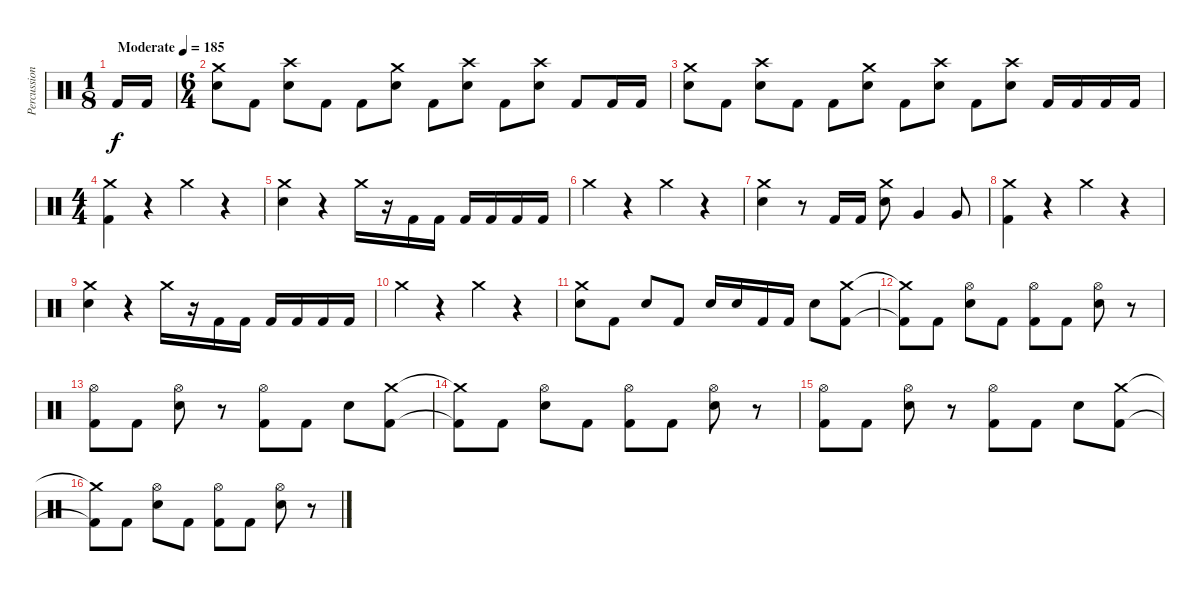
\track ("Percussion" "Percussion") {instrument percussion}
\staff {score}
\articulation defaults
\ts (1 8)
\tempo (185 "Moderate")
\clef neutral
\ks c "Kick (hit) 2".16{dy f} "Kick (hit) 2".16
|
\ts (6 4)
("Crash medium (hit)" "Electric Snare (hit)").8 "Kick (hit) 2".8 ("Crash high (hit)" "Electric Snare (hit)").8 "Kick (hit) 2".8 "Kick (hit) 2".8 ("Crash medium (hit)" "Electric Snare (hit)").8 "Kick (hit) 2".8 ("Crash high (hit)" "Electric Snare (hit)").8 "Kick (hit) 2".8 ("Crash high (hit)" "Electric Snare (hit)").8 "Kick (hit) 2".8 "Kick (hit) 2".16 "Kick (hit) 2".16 |
("Crash medium (hit)" "Electric Snare (hit)").8 "Kick (hit) 2".8 ("Crash high (hit)" "Electric Snare (hit)").8 "Kick (hit) 2".8 "Kick (hit) 2".8 ("Crash medium (hit)" "Electric Snare (hit)").8 "Kick (hit) 2".8 ("Crash high (hit)" "Electric Snare (hit)").8 "Kick (hit) 2".8 ("Crash high (hit)" "Electric Snare (hit)").8 "Kick (hit) 2".16 "Kick (hit) 2".16 "Kick (hit) 2".16 "Kick (hit) 2".16 |
\ts (4 4)
("Crash medium (hit)" "Kick (hit) 2").4 r.4 "Crash medium (hit)".4 r.4 |
("Crash medium (hit)" "Electric Snare (hit)").4 r.4 "Crash medium (hit)".16 r.16 "Kick (hit) 2".16 "Kick (hit) 2".16 "Kick (hit) 2".16 "Kick (hit) 2".16 "Kick (hit) 2".16 "Kick (hit) 2".16 |
"Crash medium (hit)".4 r.4 "Crash medium (hit)".4 r.4 |
("Crash medium (hit)" "Electric Snare (hit)").4 r.8 "Kick (hit) 2".16 "Kick (hit) 2".16 ("Crash medium (hit)" "Electric Snare (hit)").8 "Very Low Tom (hit)".4 "Very Low Tom (hit)".8 |
("Crash medium (hit)" "Kick (hit) 2").4 r.4 "Crash medium (hit)".4 r.4 |
("Crash medium (hit)" "Electric Snare (hit)").4 r.4 "Crash medium (hit)".16 r.16 "Kick (hit) 2".16 "Kick (hit) 2".16 "Kick (hit) 2".16 "Kick (hit) 2".16 "Kick (hit) 2".16 "Kick (hit) 2".16 |
"Crash medium (hit)".4 r.4 "Crash medium (hit)".4 r.4 |
("Crash medium (hit)" "Electric Snare (hit)").8 "Kick (hit) 2".8 "Electric Snare (hit)".8 "Kick (hit) 2".8 "Electric Snare (hit)".16 "Electric Snare (hit)".16 "Kick (hit) 2".16 "Kick (hit) 2".16 "Electric Snare (hit)".8 ("Crash medium (hit)" "Kick (hit) 2").8 |
("Crash medium (hit)"{t} "Kick (hit) 2"{t}).8 "Kick (hit) 2".8 ("Hi-Hat (open)" "Electric Snare (hit)").8 "Kick (hit) 2".8 ("Hi-Hat (open)" "Kick (hit) 2").8 "Kick (hit) 2".8 ("Hi-Hat (open)" "Electric Snare (hit)").8 r.8 |
("Hi-Hat (open)" "Kick (hit) 2").8 "Kick (hit) 2".8 ("Hi-Hat (open)" "Electric Snare (hit)").8 r.8 ("Hi-Hat (open)" "Kick (hit) 2").8 "Kick (hit) 2".8 "Electric Snare (hit)".8 ("Crash medium (hit)" "Kick (hit) 2").8 |
("Crash medium (hit)"{t} "Kick (hit) 2"{t}).8 "Kick (hit) 2".8 ("Hi-Hat (open)" "Electric Snare (hit)").8 "Kick (hit) 2".8 ("Hi-Hat (open)" "Kick (hit) 2").8 "Kick (hit) 2".8 ("Hi-Hat (open)" "Electric Snare (hit)").8 r.8 |
("Hi-Hat (open)" "Kick (hit) 2").8 "Kick (hit) 2".8 ("Hi-Hat (open)" "Electric Snare (hit)").8 r.8 ("Hi-Hat (open)" "Kick (hit) 2").8 "Kick (hit) 2".8 "Electric Snare (hit)".8 ("Crash medium (hit)" "Kick (hit) 2").8 |
("Crash medium (hit)"{t} "Kick (hit) 2"{t}).8 "Kick (hit) 2".8 ("Hi-Hat (open)" "Electric Snare (hit)").8 "Kick (hit) 2".8 ("Hi-Hat (open)" "Kick (hit) 2").8 "Kick (hit) 2".8 ("Hi-Hat (open)" "Electric Snare (hit)").8 r.8
